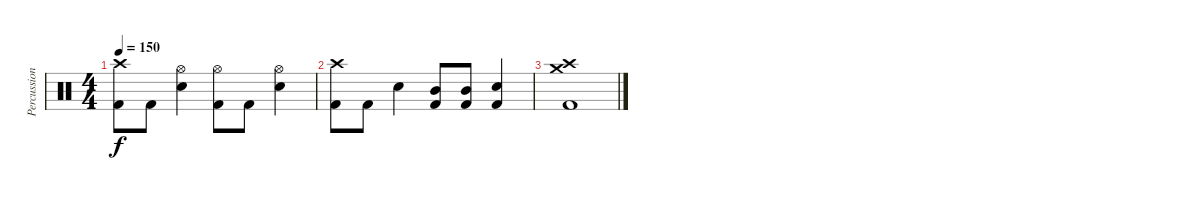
\track ("Percussion" "Percussion") {instrument percussion}
\staff {score}
\articulation defaults
\ts (4 4)
\tempo 150
\clef neutral
\ks c
("Crash high (hit)" "Kick (hit) 2").8{dy f} "Kick (hit) 2".8 ("Hi-Hat (open)" "Snare (hit) 2").4 ("Hi-Hat (open)" "Kick (hit) 2").8 "Kick (hit) 2".8 ("Hi-Hat (open)" "Snare (hit) 2").4 |
("Crash high (hit)" "Kick (hit) 2").8 "Kick (hit) 2".8 "Snare (hit) 2".4 ("Mid Tom (hit)" "Kick (hit) 2").8 ("Mid Tom (hit)" "Kick (hit) 2").8 ("Snare (hit) 2" "Kick (hit) 2").4 |
("Crash medium (hit)" "Crash high (hit)" "Kick (hit) 2").1
